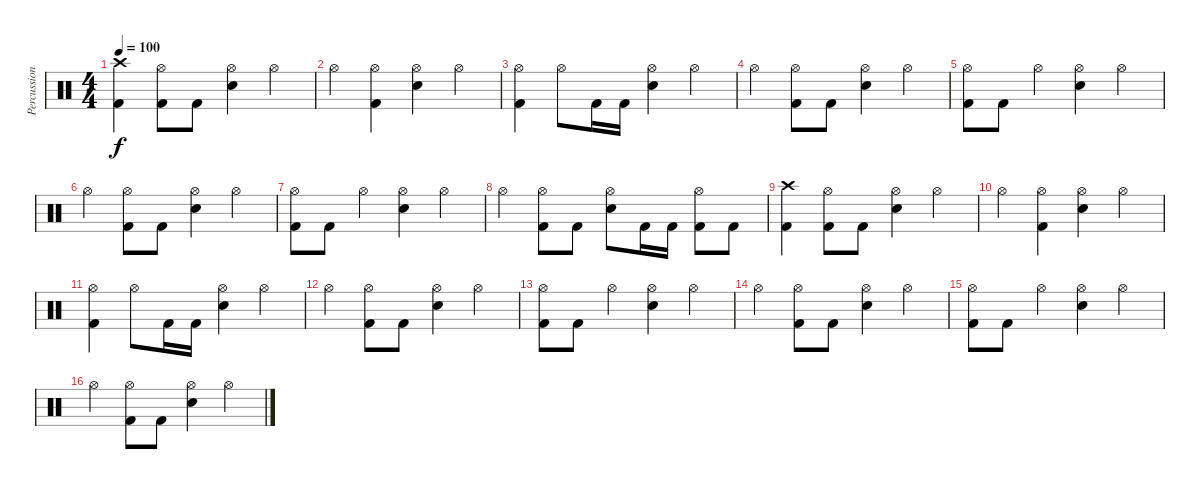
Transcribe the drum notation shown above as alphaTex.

\track ("Percussion" "Percussion") {instrument percussion}
\staff {score}
\articulation defaults
\ts (4 4)
\tempo 100
\clef neutral
\ks c
("Crash high (hit)" "Kick (hit) 2").4{dy f} ("Hi-Hat (open)" "Kick (hit) 2").8 "Kick (hit) 2".8 ("Hi-Hat (open)" "Electric Snare (hit)").4 "Hi-Hat (open)".4 |
"Hi-Hat (open)".4 ("Hi-Hat (open)" "Kick (hit) 2").4 ("Hi-Hat (open)" "Electric Snare (hit)").4 "Hi-Hat (open)".4 |
("Hi-Hat (open)" "Kick (hit) 2").4 "Hi-Hat (open)".8 "Kick (hit) 2".16 "Kick (hit) 2".16 ("Hi-Hat (open)" "Electric Snare (hit)").4 "Hi-Hat (open)".4 |
"Hi-Hat (open)".4 ("Hi-Hat (open)" "Kick (hit) 2").8 "Kick (hit) 2".8 ("Hi-Hat (open)" "Electric Snare (hit)").4 "Hi-Hat (open)".4 |
("Hi-Hat (open)" "Kick (hit) 2").8 "Kick (hit) 2".8 "Hi-Hat (open)".4 ("Hi-Hat (open)" "Electric Snare (hit)").4 "Hi-Hat (open)".4 |
"Hi-Hat (open)".4 ("Hi-Hat (open)" "Kick (hit) 2").8 "Kick (hit) 2".8 ("Hi-Hat (open)" "Electric Snare (hit)").4 "Hi-Hat (open)".4 |
("Hi-Hat (open)" "Kick (hit) 2").8 "Kick (hit) 2".8 "Hi-Hat (open)".4 ("Hi-Hat (open)" "Electric Snare (hit)").4 "Hi-Hat (open)".4 |
"Hi-Hat (open)".4 ("Hi-Hat (open)" "Kick (hit) 2").8 "Kick (hit) 2".8 ("Hi-Hat (open)" "Electric Snare (hit)").8 "Kick (hit) 2".16 "Kick (hit) 2".16 ("Hi-Hat (open)" "Kick (hit) 2").8 "Kick (hit) 2".8 |
("Crash high (hit)" "Kick (hit) 2").4 ("Hi-Hat (open)" "Kick (hit) 2").8 "Kick (hit) 2".8 ("Hi-Hat (open)" "Electric Snare (hit)").4 "Hi-Hat (open)".4 |
"Hi-Hat (open)".4 ("Hi-Hat (open)" "Kick (hit) 2").4 ("Hi-Hat (open)" "Electric Snare (hit)").4 "Hi-Hat (open)".4 |
("Hi-Hat (open)" "Kick (hit) 2").4 "Hi-Hat (open)".8 "Kick (hit) 2".16 "Kick (hit) 2".16 ("Hi-Hat (open)" "Electric Snare (hit)").4 "Hi-Hat (open)".4 |
"Hi-Hat (open)".4 ("Hi-Hat (open)" "Kick (hit) 2").8 "Kick (hit) 2".8 ("Hi-Hat (open)" "Electric Snare (hit)").4 "Hi-Hat (open)".4 |
("Hi-Hat (open)" "Kick (hit) 2").8 "Kick (hit) 2".8 "Hi-Hat (open)".4 ("Hi-Hat (open)" "Electric Snare (hit)").4 "Hi-Hat (open)".4 |
"Hi-Hat (open)".4 ("Hi-Hat (open)" "Kick (hit) 2").8 "Kick (hit) 2".8 ("Hi-Hat (open)" "Electric Snare (hit)").4 "Hi-Hat (open)".4 |
("Hi-Hat (open)" "Kick (hit) 2").8 "Kick (hit) 2".8 "Hi-Hat (open)".4 ("Hi-Hat (open)" "Electric Snare (hit)").4 "Hi-Hat (open)".4 |
"Hi-Hat (open)".4 ("Hi-Hat (open)" "Kick (hit) 2").8 "Kick (hit) 2".8 ("Hi-Hat (open)" "Electric Snare (hit)").4 "Hi-Hat (open)".4
